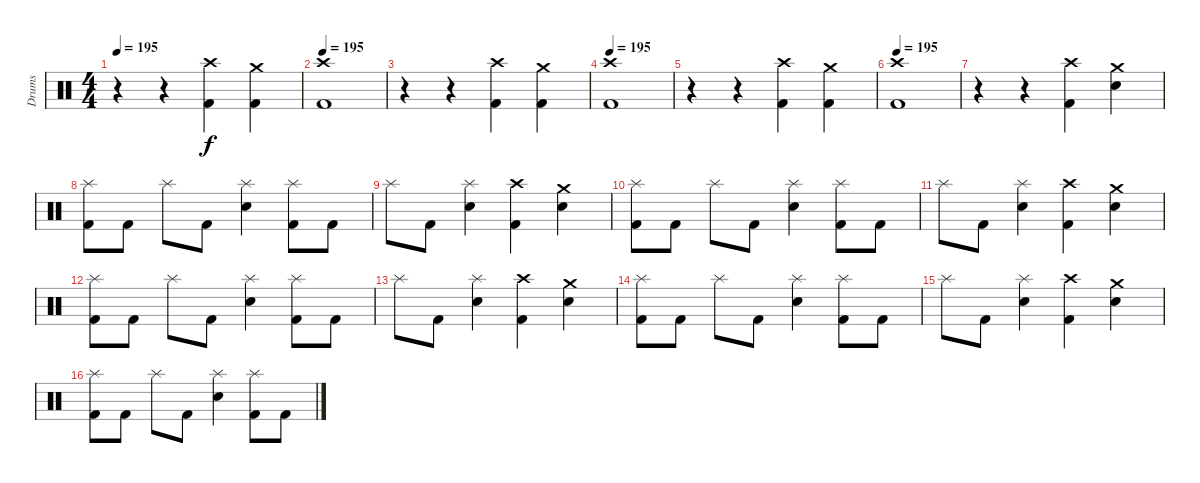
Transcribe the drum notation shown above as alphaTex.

\track ("Drums" "Drums") {instrument percussion}
\staff {score}
\articulation defaults
\ts (4 4)
\tempo 195
\clef neutral
\ks c
r.4{dy f} r.4 ("Crash high (hit)" "Kick (hit) 2").4 ("Crash medium (hit)" "Kick (hit) 2").4 |
\tempo 195
("Crash high (hit)" "Kick (hit) 2").1 |
r.4 r.4 ("Crash high (hit)" "Kick (hit) 2").4 ("Crash medium (hit)" "Kick (hit) 2").4 |
\tempo 195
("Crash high (hit)" "Kick (hit) 2").1 |
r.4 r.4 ("Crash high (hit)" "Kick (hit) 2").4 ("Crash medium (hit)" "Kick (hit) 2").4 |
\tempo 195
("Crash high (hit)" "Kick (hit) 2").1 |
r.4 r.4 ("Crash high (hit)" "Kick (hit) 2").4 ("Crash medium (hit)" "Snare (hit) 2").4 |
("Splash (hit)" "Kick (hit) 2").8 "Kick (hit) 2".8 "Splash (hit)".8 "Kick (hit) 2".8 ("Splash (hit)" "Snare (hit) 2").4 ("Splash (hit)" "Kick (hit) 2").8 "Kick (hit) 2".8 |
"Splash (hit)".8 "Kick (hit) 2".8 ("Splash (hit)" "Snare (hit) 2").4 ("Crash high (hit)" "Kick (hit) 2").4 ("Crash medium (hit)" "Snare (hit) 2").4 |
("Splash (hit)" "Kick (hit) 2").8 "Kick (hit) 2".8 "Splash (hit)".8 "Kick (hit) 2".8 ("Splash (hit)" "Snare (hit) 2").4 ("Splash (hit)" "Kick (hit) 2").8 "Kick (hit) 2".8 |
"Splash (hit)".8 "Kick (hit) 2".8 ("Splash (hit)" "Snare (hit) 2").4 ("Crash high (hit)" "Kick (hit) 2").4 ("Crash medium (hit)" "Snare (hit) 2").4 |
("Splash (hit)" "Kick (hit) 2").8 "Kick (hit) 2".8 "Splash (hit)".8 "Kick (hit) 2".8 ("Splash (hit)" "Snare (hit) 2").4 ("Splash (hit)" "Kick (hit) 2").8 "Kick (hit) 2".8 |
"Splash (hit)".8 "Kick (hit) 2".8 ("Splash (hit)" "Snare (hit) 2").4 ("Crash high (hit)" "Kick (hit) 2").4 ("Crash medium (hit)" "Snare (hit) 2").4 |
("Splash (hit)" "Kick (hit) 2").8 "Kick (hit) 2".8 "Splash (hit)".8 "Kick (hit) 2".8 ("Splash (hit)" "Snare (hit) 2").4 ("Splash (hit)" "Kick (hit) 2").8 "Kick (hit) 2".8 |
"Splash (hit)".8 "Kick (hit) 2".8 ("Splash (hit)" "Snare (hit) 2").4 ("Crash high (hit)" "Kick (hit) 2").4 ("Crash medium (hit)" "Snare (hit) 2").4 |
("Splash (hit)" "Kick (hit) 2").8 "Kick (hit) 2".8 "Splash (hit)".8 "Kick (hit) 2".8 ("Splash (hit)" "Snare (hit) 2").4 ("Splash (hit)" "Kick (hit) 2").8 "Kick (hit) 2".8
